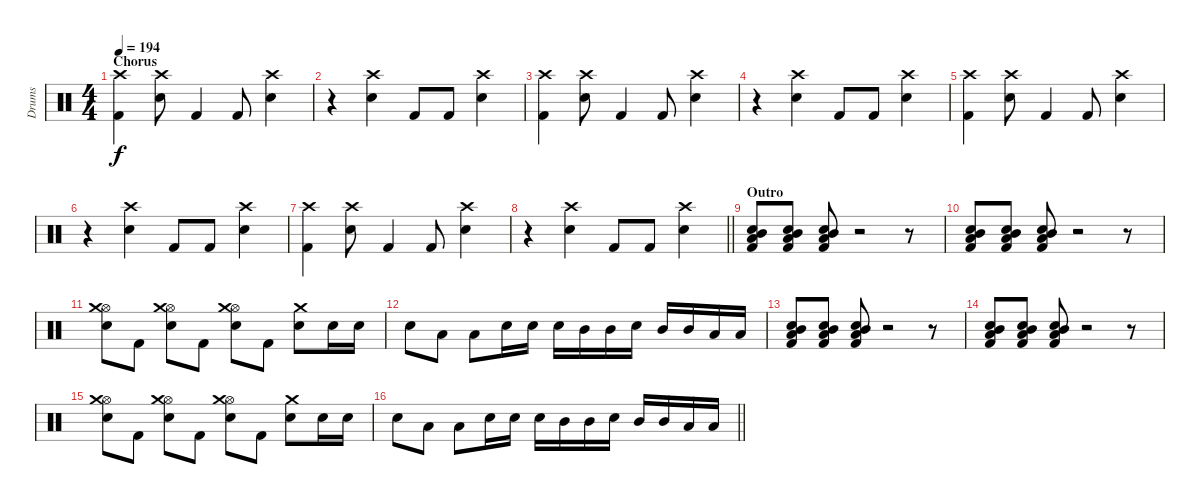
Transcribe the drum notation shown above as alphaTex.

\track ("Drums" "Drums") {instrument percussion}
\staff {score}
\articulation defaults
\ts (4 4)
\section ("" "Chorus")
\tempo 194
\clef neutral
\ks c
("Crash high (hit)" "Kick (hit) 2").4{dy f volume 12} ("Crash high (hit)" "Electric Snare (hit)").8 "Kick (hit) 2".4 "Kick (hit) 2".8 ("Crash high (hit)" "Electric Snare (hit)").4 |
r.4 ("Crash high (hit)" "Electric Snare (hit)").4 "Kick (hit) 2".8 "Kick (hit) 2".8 ("Crash high (hit)" "Electric Snare (hit)").4 |
("Crash high (hit)" "Kick (hit) 2").4 ("Crash high (hit)" "Electric Snare (hit)").8 "Kick (hit) 2".4 "Kick (hit) 2".8 ("Crash high (hit)" "Electric Snare (hit)").4 |
r.4 ("Crash high (hit)" "Electric Snare (hit)").4 "Kick (hit) 2".8 "Kick (hit) 2".8 ("Crash high (hit)" "Electric Snare (hit)").4 |
("Crash high (hit)" "Kick (hit) 2").4 ("Crash high (hit)" "Electric Snare (hit)").8 "Kick (hit) 2".4 "Kick (hit) 2".8 ("Crash high (hit)" "Electric Snare (hit)").4 |
r.4 ("Crash high (hit)" "Electric Snare (hit)").4 "Kick (hit) 2".8 "Kick (hit) 2".8 ("Crash high (hit)" "Electric Snare (hit)").4 |
("Crash high (hit)" "Kick (hit) 2").4 ("Crash high (hit)" "Electric Snare (hit)").8 "Kick (hit) 2".4 "Kick (hit) 2".8 ("Crash high (hit)" "Electric Snare (hit)").4 |
\barLineRight lightlight
r.4 ("Crash high (hit)" "Electric Snare (hit)").4 "Kick (hit) 2".8 "Kick (hit) 2".8 ("Crash high (hit)" "Electric Snare (hit)").4 |
\section ("" "Outro")
("Low Floor Tom (hit)" "Mid Tom (hit)" "Snare (hit) 2" "Kick (hit) 2").8{volume 8} ("Low Floor Tom (hit)" "Mid Tom (hit)" "Snare (hit) 2" "Kick (hit) 2").8 ("Low Floor Tom (hit)" "Mid Tom (hit)" "Snare (hit) 2" "Kick (hit) 2").8 r.2 r.8 |
("Low Floor Tom (hit)" "Mid Tom (hit)" "Snare (hit) 2" "Kick (hit) 2").8 ("Low Floor Tom (hit)" "Mid Tom (hit)" "Snare (hit) 2" "Kick (hit) 2").8 ("Low Floor Tom (hit)" "Mid Tom (hit)" "Snare (hit) 2" "Kick (hit) 2").8 r.2 r.8 |
("Hi-Hat (open)" "Electric Snare (hit)" "Crash medium (hit)").8 "Kick (hit) 2".8 ("Hi-Hat (open)" "Electric Snare (hit)" "Crash medium (hit)").8 "Kick (hit) 2".8 ("Hi-Hat (open)" "Electric Snare (hit)" "Crash medium (hit)").8 "Kick (hit) 2".8 ("Electric Snare (hit)" "Crash medium (hit)").8 "Electric Snare (hit)".16{volume 12} "Electric Snare (hit)".16 |
"Electric Snare (hit)".8 "Low Floor Tom (hit)".8 "Low Floor Tom (hit)".8 "Electric Snare (hit)".16 "Electric Snare (hit)".16 "Electric Snare (hit)".16 "Mid Tom (hit)".16 "Mid Tom (hit)".16 "Electric Snare (hit)".16 "Mid Tom (hit)".16 "Mid Tom (hit)".16 "Low Floor Tom (hit)".16 "Low Floor Tom (hit)".16 |
("Low Floor Tom (hit)" "Mid Tom (hit)" "Snare (hit) 2" "Kick (hit) 2").8{volume 8} ("Low Floor Tom (hit)" "Mid Tom (hit)" "Snare (hit) 2" "Kick (hit) 2").8 ("Low Floor Tom (hit)" "Mid Tom (hit)" "Snare (hit) 2" "Kick (hit) 2").8 r.2 r.8 |
("Low Floor Tom (hit)" "Mid Tom (hit)" "Snare (hit) 2" "Kick (hit) 2").8 ("Low Floor Tom (hit)" "Mid Tom (hit)" "Snare (hit) 2" "Kick (hit) 2").8 ("Low Floor Tom (hit)" "Mid Tom (hit)" "Snare (hit) 2" "Kick (hit) 2").8 r.2 r.8 |
("Hi-Hat (open)" "Electric Snare (hit)" "Crash medium (hit)").8 "Kick (hit) 2".8 ("Hi-Hat (open)" "Electric Snare (hit)" "Crash medium (hit)").8 "Kick (hit) 2".8 ("Hi-Hat (open)" "Electric Snare (hit)" "Crash medium (hit)").8 "Kick (hit) 2".8 ("Electric Snare (hit)" "Crash medium (hit)").8 "Electric Snare (hit)".16{volume 12} "Electric Snare (hit)".16 |
\barLineRight lightlight "Electric Snare (hit)".8 "Low Floor Tom (hit)".8 "Low Floor Tom (hit)".8 "Electric Snare (hit)".16 "Electric Snare (hit)".16 "Electric Snare (hit)".16 "Mid Tom (hit)".16 "Mid Tom (hit)".16 "Electric Snare (hit)".16 "Mid Tom (hit)".16 "Mid Tom (hit)".16 "Low Floor Tom (hit)".16 "Low Floor Tom (hit)".16
